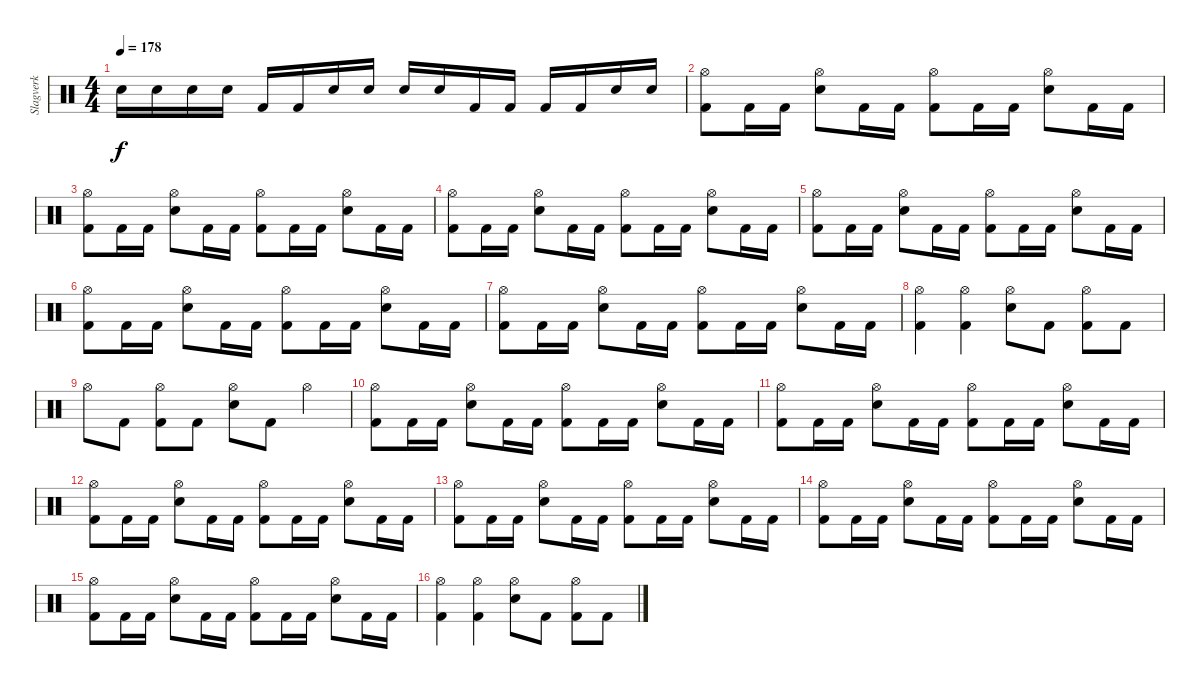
\track ("Slagverk" "Slagverk") {instrument percussion}
\staff {score}
\articulation defaults
\ts (4 4)
\tempo 178
\clef neutral
\ks c "Electric Snare (hit)".16{dy f} "Electric Snare (hit)".16 "Electric Snare (hit)".16 "Electric Snare (hit)".16 "Kick (hit) 2".16 "Kick (hit) 2".16 "Electric Snare (hit)".16 "Electric Snare (hit)".16 "Electric Snare (hit)".16 "Electric Snare (hit)".16 "Kick (hit) 2".16 "Kick (hit) 2".16 "Kick (hit) 2".16 "Kick (hit) 2".16 "Electric Snare (hit)".16 "Electric Snare (hit)".16
|
("Hi-Hat (open)" "Kick (hit) 2").8 "Kick (hit) 2".16 "Kick (hit) 2".16 ("Hi-Hat (open)" "Electric Snare (hit)").8 "Kick (hit) 2".16 "Kick (hit) 2".16 ("Hi-Hat (open)" "Kick (hit) 2").8 "Kick (hit) 2".16 "Kick (hit) 2".16 ("Hi-Hat (open)" "Electric Snare (hit)").8 "Kick (hit) 2".16 "Kick (hit) 2".16 |
("Hi-Hat (open)" "Kick (hit) 2").8 "Kick (hit) 2".16 "Kick (hit) 2".16 ("Hi-Hat (open)" "Electric Snare (hit)").8 "Kick (hit) 2".16 "Kick (hit) 2".16 ("Hi-Hat (open)" "Kick (hit) 2").8 "Kick (hit) 2".16 "Kick (hit) 2".16 ("Hi-Hat (open)" "Electric Snare (hit)").8 "Kick (hit) 2".16 "Kick (hit) 2".16 |
("Hi-Hat (open)" "Kick (hit) 2").8 "Kick (hit) 2".16 "Kick (hit) 2".16 ("Hi-Hat (open)" "Electric Snare (hit)").8 "Kick (hit) 2".16 "Kick (hit) 2".16 ("Hi-Hat (open)" "Kick (hit) 2").8 "Kick (hit) 2".16 "Kick (hit) 2".16 ("Hi-Hat (open)" "Electric Snare (hit)").8 "Kick (hit) 2".16 "Kick (hit) 2".16 |
("Hi-Hat (open)" "Kick (hit) 2").8 "Kick (hit) 2".16 "Kick (hit) 2".16 ("Hi-Hat (open)" "Electric Snare (hit)").8 "Kick (hit) 2".16 "Kick (hit) 2".16 ("Hi-Hat (open)" "Kick (hit) 2").8 "Kick (hit) 2".16 "Kick (hit) 2".16 ("Hi-Hat (open)" "Electric Snare (hit)").8 "Kick (hit) 2".16 "Kick (hit) 2".16 |
("Hi-Hat (open)" "Kick (hit) 2").8 "Kick (hit) 2".16 "Kick (hit) 2".16 ("Hi-Hat (open)" "Electric Snare (hit)").8 "Kick (hit) 2".16 "Kick (hit) 2".16 ("Hi-Hat (open)" "Kick (hit) 2").8 "Kick (hit) 2".16 "Kick (hit) 2".16 ("Hi-Hat (open)" "Electric Snare (hit)").8 "Kick (hit) 2".16 "Kick (hit) 2".16 |
("Hi-Hat (open)" "Kick (hit) 2").8 "Kick (hit) 2".16 "Kick (hit) 2".16 ("Hi-Hat (open)" "Electric Snare (hit)").8 "Kick (hit) 2".16 "Kick (hit) 2".16 ("Hi-Hat (open)" "Kick (hit) 2").8 "Kick (hit) 2".16 "Kick (hit) 2".16 ("Hi-Hat (open)" "Electric Snare (hit)").8 "Kick (hit) 2".16 "Kick (hit) 2".16 |
("Hi-Hat (open)" "Kick (hit) 2").4 ("Hi-Hat (open)" "Kick (hit) 2").4 ("Hi-Hat (open)" "Electric Snare (hit)").8 "Kick (hit) 2".8 ("Hi-Hat (open)" "Kick (hit) 2").8 "Kick (hit) 2".8 |
"Hi-Hat (open)".8 "Kick (hit) 2".8 ("Hi-Hat (open)" "Kick (hit) 2").8 "Kick (hit) 2".8 ("Hi-Hat (open)" "Electric Snare (hit)").8 "Kick (hit) 2".8 "Hi-Hat (open)".4 |
("Hi-Hat (open)" "Kick (hit) 2").8 "Kick (hit) 2".16 "Kick (hit) 2".16 ("Hi-Hat (open)" "Electric Snare (hit)").8 "Kick (hit) 2".16 "Kick (hit) 2".16 ("Hi-Hat (open)" "Kick (hit) 2").8 "Kick (hit) 2".16 "Kick (hit) 2".16 ("Hi-Hat (open)" "Electric Snare (hit)").8 "Kick (hit) 2".16 "Kick (hit) 2".16 |
("Hi-Hat (open)" "Kick (hit) 2").8 "Kick (hit) 2".16 "Kick (hit) 2".16 ("Hi-Hat (open)" "Electric Snare (hit)").8 "Kick (hit) 2".16 "Kick (hit) 2".16 ("Hi-Hat (open)" "Kick (hit) 2").8 "Kick (hit) 2".16 "Kick (hit) 2".16 ("Hi-Hat (open)" "Electric Snare (hit)").8 "Kick (hit) 2".16 "Kick (hit) 2".16 |
("Hi-Hat (open)" "Kick (hit) 2").8 "Kick (hit) 2".16 "Kick (hit) 2".16 ("Hi-Hat (open)" "Electric Snare (hit)").8 "Kick (hit) 2".16 "Kick (hit) 2".16 ("Hi-Hat (open)" "Kick (hit) 2").8 "Kick (hit) 2".16 "Kick (hit) 2".16 ("Hi-Hat (open)" "Electric Snare (hit)").8 "Kick (hit) 2".16 "Kick (hit) 2".16 |
("Hi-Hat (open)" "Kick (hit) 2").8 "Kick (hit) 2".16 "Kick (hit) 2".16 ("Hi-Hat (open)" "Electric Snare (hit)").8 "Kick (hit) 2".16 "Kick (hit) 2".16 ("Hi-Hat (open)" "Kick (hit) 2").8 "Kick (hit) 2".16 "Kick (hit) 2".16 ("Hi-Hat (open)" "Electric Snare (hit)").8 "Kick (hit) 2".16 "Kick (hit) 2".16 |
("Hi-Hat (open)" "Kick (hit) 2").8 "Kick (hit) 2".16 "Kick (hit) 2".16 ("Hi-Hat (open)" "Electric Snare (hit)").8 "Kick (hit) 2".16 "Kick (hit) 2".16 ("Hi-Hat (open)" "Kick (hit) 2").8 "Kick (hit) 2".16 "Kick (hit) 2".16 ("Hi-Hat (open)" "Electric Snare (hit)").8 "Kick (hit) 2".16 "Kick (hit) 2".16 |
("Hi-Hat (open)" "Kick (hit) 2").8 "Kick (hit) 2".16 "Kick (hit) 2".16 ("Hi-Hat (open)" "Electric Snare (hit)").8 "Kick (hit) 2".16 "Kick (hit) 2".16 ("Hi-Hat (open)" "Kick (hit) 2").8 "Kick (hit) 2".16 "Kick (hit) 2".16 ("Hi-Hat (open)" "Electric Snare (hit)").8 "Kick (hit) 2".16 "Kick (hit) 2".16 |
("Hi-Hat (open)" "Kick (hit) 2").4 ("Hi-Hat (open)" "Kick (hit) 2").4 ("Hi-Hat (open)" "Electric Snare (hit)").8 "Kick (hit) 2".8 ("Hi-Hat (open)" "Kick (hit) 2").8 "Kick (hit) 2".8
